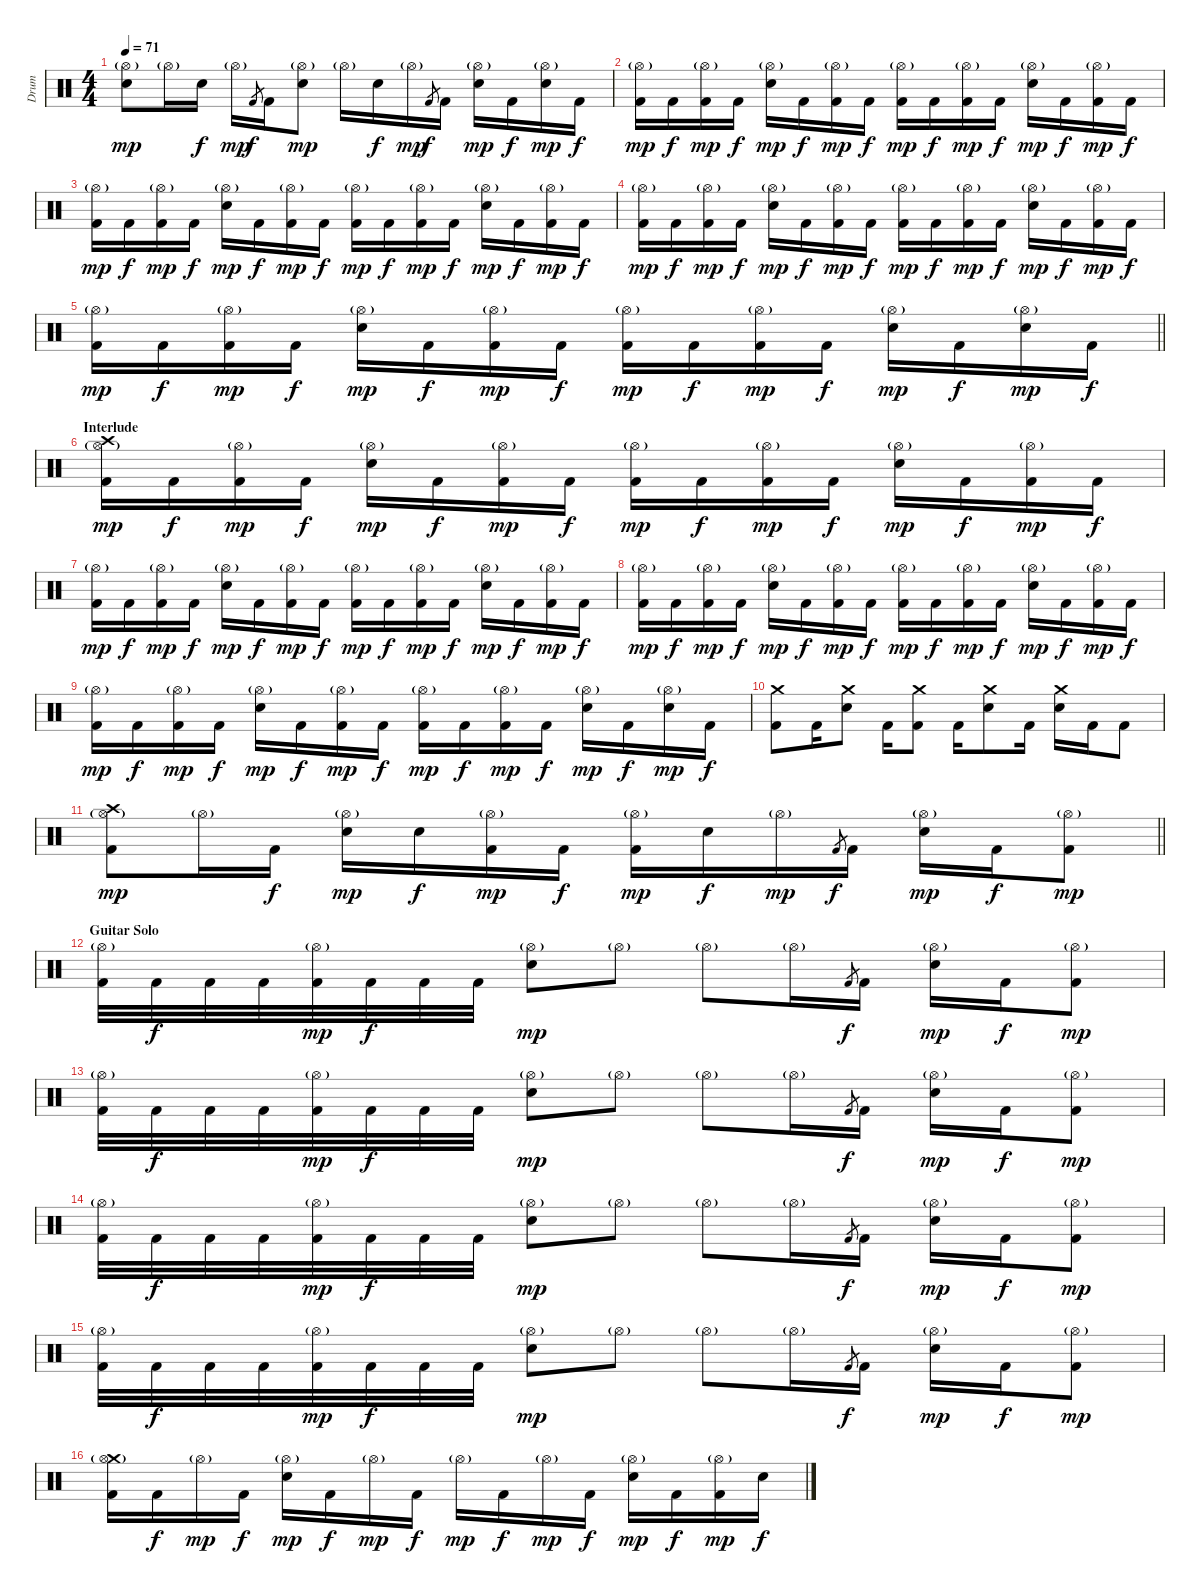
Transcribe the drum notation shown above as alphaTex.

\track ("Drum" "Drum") {instrument percussion}
\staff {score}
\articulation defaults
\ts (4 4)
\tempo 71
\clef neutral
\ks c
("Hi-Hat (open)"{g} "Electric Snare (hit)").8{dy mp} "Hi-Hat (open)"{g}.16 "Electric Snare (hit)".16{dy f} "Hi-Hat (open)"{g}.16{dy mp} "Kick (hit) 2".8{gr dy f} "Kick (hit) 2".16 ("Hi-Hat (open)"{g} "Electric Snare (hit)").8{dy mp} "Hi-Hat (open)"{g}.16 "Electric Snare (hit)".16{dy f} "Hi-Hat (open)"{g}.16{dy mp} "Kick (hit) 2".8{gr dy f} "Kick (hit) 2".16 ("Hi-Hat (open)"{g} "Electric Snare (hit)").16{dy mp} "Kick (hit) 2".16{dy f} ("Hi-Hat (open)"{g} "Electric Snare (hit)").16{dy mp} "Kick (hit) 2".16{dy f} |
("Hi-Hat (open)"{g} "Kick (hit) 2").16{dy mp} "Kick (hit) 2".16{dy f} ("Hi-Hat (open)"{g} "Kick (hit) 2").16{dy mp} "Kick (hit) 2".16{dy f} ("Hi-Hat (open)"{g} "Electric Snare (hit)").16{dy mp} "Kick (hit) 2".16{dy f} ("Hi-Hat (open)"{g} "Kick (hit) 2").16{dy mp} "Kick (hit) 2".16{dy f} ("Hi-Hat (open)"{g} "Kick (hit) 2").16{dy mp} "Kick (hit) 2".16{dy f} ("Hi-Hat (open)"{g} "Kick (hit) 2").16{dy mp} "Kick (hit) 2".16{dy f} ("Hi-Hat (open)"{g} "Electric Snare (hit)").16{dy mp} "Kick (hit) 2".16{dy f} ("Hi-Hat (open)"{g} "Kick (hit) 2").16{dy mp} "Kick (hit) 2".16{dy f} |
("Hi-Hat (open)"{g} "Kick (hit) 2").16{dy mp} "Kick (hit) 2".16{dy f} ("Hi-Hat (open)"{g} "Kick (hit) 2").16{dy mp} "Kick (hit) 2".16{dy f} ("Hi-Hat (open)"{g} "Electric Snare (hit)").16{dy mp} "Kick (hit) 2".16{dy f} ("Hi-Hat (open)"{g} "Kick (hit) 2").16{dy mp} "Kick (hit) 2".16{dy f} ("Hi-Hat (open)"{g} "Kick (hit) 2").16{dy mp} "Kick (hit) 2".16{dy f} ("Hi-Hat (open)"{g} "Kick (hit) 2").16{dy mp} "Kick (hit) 2".16{dy f} ("Hi-Hat (open)"{g} "Electric Snare (hit)").16{dy mp} "Kick (hit) 2".16{dy f} ("Hi-Hat (open)"{g} "Kick (hit) 2").16{dy mp} "Kick (hit) 2".16{dy f} |
("Hi-Hat (open)"{g} "Kick (hit) 2").16{dy mp} "Kick (hit) 2".16{dy f} ("Hi-Hat (open)"{g} "Kick (hit) 2").16{dy mp} "Kick (hit) 2".16{dy f} ("Hi-Hat (open)"{g} "Electric Snare (hit)").16{dy mp} "Kick (hit) 2".16{dy f} ("Hi-Hat (open)"{g} "Kick (hit) 2").16{dy mp} "Kick (hit) 2".16{dy f} ("Hi-Hat (open)"{g} "Kick (hit) 2").16{dy mp} "Kick (hit) 2".16{dy f} ("Hi-Hat (open)"{g} "Kick (hit) 2").16{dy mp} "Kick (hit) 2".16{dy f} ("Hi-Hat (open)"{g} "Electric Snare (hit)").16{dy mp} "Kick (hit) 2".16{dy f} ("Hi-Hat (open)"{g} "Kick (hit) 2").16{dy mp} "Kick (hit) 2".16{dy f} |
\barLineRight lightlight
("Hi-Hat (open)"{g} "Kick (hit) 2").16{dy mp} "Kick (hit) 2".16{dy f} ("Hi-Hat (open)"{g} "Kick (hit) 2").16{dy mp} "Kick (hit) 2".16{dy f} ("Hi-Hat (open)"{g} "Electric Snare (hit)").16{dy mp} "Kick (hit) 2".16{dy f} ("Hi-Hat (open)"{g} "Kick (hit) 2").16{dy mp} "Kick (hit) 2".16{dy f} ("Hi-Hat (open)"{g} "Kick (hit) 2").16{dy mp} "Kick (hit) 2".16{dy f} ("Hi-Hat (open)"{g} "Kick (hit) 2").16{dy mp} "Kick (hit) 2".16{dy f} ("Hi-Hat (open)"{g} "Electric Snare (hit)").16{dy mp} "Kick (hit) 2".16{dy f} ("Hi-Hat (open)"{g} "Electric Snare (hit)").16{dy mp} "Kick (hit) 2".16{dy f} |
\section ("" "Interlude")
("Crash high (hit)" "Hi-Hat (open)"{g} "Kick (hit) 2").16{dy mp} "Kick (hit) 2".16{dy f} ("Hi-Hat (open)"{g} "Kick (hit) 2").16{dy mp} "Kick (hit) 2".16{dy f} ("Hi-Hat (open)"{g} "Electric Snare (hit)").16{dy mp} "Kick (hit) 2".16{dy f} ("Hi-Hat (open)"{g} "Kick (hit) 2").16{dy mp} "Kick (hit) 2".16{dy f} ("Hi-Hat (open)"{g} "Kick (hit) 2").16{dy mp} "Kick (hit) 2".16{dy f} ("Hi-Hat (open)"{g} "Kick (hit) 2").16{dy mp} "Kick (hit) 2".16{dy f} ("Hi-Hat (open)"{g} "Electric Snare (hit)").16{dy mp} "Kick (hit) 2".16{dy f} ("Hi-Hat (open)"{g} "Kick (hit) 2").16{dy mp} "Kick (hit) 2".16{dy f} |
("Hi-Hat (open)"{g} "Kick (hit) 2").16{dy mp} "Kick (hit) 2".16{dy f} ("Hi-Hat (open)"{g} "Kick (hit) 2").16{dy mp} "Kick (hit) 2".16{dy f} ("Hi-Hat (open)"{g} "Electric Snare (hit)").16{dy mp} "Kick (hit) 2".16{dy f} ("Hi-Hat (open)"{g} "Kick (hit) 2").16{dy mp} "Kick (hit) 2".16{dy f} ("Hi-Hat (open)"{g} "Kick (hit) 2").16{dy mp} "Kick (hit) 2".16{dy f} ("Hi-Hat (open)"{g} "Kick (hit) 2").16{dy mp} "Kick (hit) 2".16{dy f} ("Hi-Hat (open)"{g} "Electric Snare (hit)").16{dy mp} "Kick (hit) 2".16{dy f} ("Hi-Hat (open)"{g} "Kick (hit) 2").16{dy mp} "Kick (hit) 2".16{dy f} |
("Hi-Hat (open)"{g} "Kick (hit) 2").16{dy mp} "Kick (hit) 2".16{dy f} ("Hi-Hat (open)"{g} "Kick (hit) 2").16{dy mp} "Kick (hit) 2".16{dy f} ("Hi-Hat (open)"{g} "Electric Snare (hit)").16{dy mp} "Kick (hit) 2".16{dy f} ("Hi-Hat (open)"{g} "Kick (hit) 2").16{dy mp} "Kick (hit) 2".16{dy f} ("Hi-Hat (open)"{g} "Kick (hit) 2").16{dy mp} "Kick (hit) 2".16{dy f} ("Hi-Hat (open)"{g} "Kick (hit) 2").16{dy mp} "Kick (hit) 2".16{dy f} ("Hi-Hat (open)"{g} "Electric Snare (hit)").16{dy mp} "Kick (hit) 2".16{dy f} ("Hi-Hat (open)"{g} "Kick (hit) 2").16{dy mp} "Kick (hit) 2".16{dy f} |
("Hi-Hat (open)"{g} "Kick (hit) 2").16{dy mp} "Kick (hit) 2".16{dy f} ("Hi-Hat (open)"{g} "Kick (hit) 2").16{dy mp} "Kick (hit) 2".16{dy f} ("Hi-Hat (open)"{g} "Electric Snare (hit)").16{dy mp} "Kick (hit) 2".16{dy f} ("Hi-Hat (open)"{g} "Kick (hit) 2").16{dy mp} "Kick (hit) 2".16{dy f} ("Hi-Hat (open)"{g} "Kick (hit) 2").16{dy mp} "Kick (hit) 2".16{dy f} ("Hi-Hat (open)"{g} "Kick (hit) 2").16{dy mp} "Kick (hit) 2".16{dy f} ("Hi-Hat (open)"{g} "Electric Snare (hit)").16{dy mp} "Kick (hit) 2".16{dy f} ("Hi-Hat (open)"{g} "Electric Snare (hit)").16{dy mp} "Kick (hit) 2".16{dy f} |
("Crash medium (hit)" "Kick (hit) 2").8 "Kick (hit) 2".16 ("Crash medium (hit)" "Electric Snare (hit)").8 "Kick (hit) 2".16 ("Crash medium (hit)" "Kick (hit) 2").8 "Kick (hit) 2".16 ("Crash medium (hit)" "Electric Snare (hit)").8 "Kick (hit) 2".16 ("Crash medium (hit)" "Electric Snare (hit)").16 "Kick (hit) 2".16 "Kick (hit) 2".8 |
\barLineRight lightlight
("Crash high (hit)" "Hi-Hat (open)"{g} "Kick (hit) 2").8{dy mp} "Hi-Hat (open)"{g}.16 "Kick (hit) 2".16{dy f} ("Hi-Hat (open)"{g} "Electric Snare (hit)").16{dy mp} "Electric Snare (hit)".16{dy f} ("Hi-Hat (open)"{g} "Kick (hit) 2").16{dy mp} "Kick (hit) 2".16{dy f} ("Hi-Hat (open)"{g} "Kick (hit) 2").16{dy mp} "Electric Snare (hit)".16{dy f} "Hi-Hat (open)"{g}.16{dy mp} "Kick (hit) 2".8{gr dy f} "Kick (hit) 2".16 ("Hi-Hat (open)"{g} "Electric Snare (hit)").16{dy mp} "Kick (hit) 2".16{dy f} ("Hi-Hat (open)"{g} "Kick (hit) 2").8{dy mp} |
\section ("" "Guitar Solo")
("Hi-Hat (open)"{g} "Kick (hit) 2").32 "Kick (hit) 2".32{dy f} "Kick (hit) 2".32 "Kick (hit) 2".32 ("Hi-Hat (open)"{g} "Kick (hit) 2").32{dy mp} "Kick (hit) 2".32{dy f} "Kick (hit) 2".32 "Kick (hit) 2".32 ("Hi-Hat (open)"{g} "Electric Snare (hit)").8{dy mp} "Hi-Hat (open)"{g}.8 "Hi-Hat (open)"{g}.8 "Hi-Hat (open)"{g}.16 "Kick (hit) 2".8{gr dy f} "Kick (hit) 2".16 ("Hi-Hat (open)"{g} "Electric Snare (hit)").16{dy mp} "Kick (hit) 2".16{dy f} ("Hi-Hat (open)"{g} "Kick (hit) 2").8{dy mp} |
("Hi-Hat (open)"{g} "Kick (hit) 2").32 "Kick (hit) 2".32{dy f} "Kick (hit) 2".32 "Kick (hit) 2".32 ("Hi-Hat (open)"{g} "Kick (hit) 2").32{dy mp} "Kick (hit) 2".32{dy f} "Kick (hit) 2".32 "Kick (hit) 2".32 ("Hi-Hat (open)"{g} "Electric Snare (hit)").8{dy mp} "Hi-Hat (open)"{g}.8 "Hi-Hat (open)"{g}.8 "Hi-Hat (open)"{g}.16 "Kick (hit) 2".8{gr dy f} "Kick (hit) 2".16 ("Hi-Hat (open)"{g} "Electric Snare (hit)").16{dy mp} "Kick (hit) 2".16{dy f} ("Hi-Hat (open)"{g} "Kick (hit) 2").8{dy mp} |
("Hi-Hat (open)"{g} "Kick (hit) 2").32 "Kick (hit) 2".32{dy f} "Kick (hit) 2".32 "Kick (hit) 2".32 ("Hi-Hat (open)"{g} "Kick (hit) 2").32{dy mp} "Kick (hit) 2".32{dy f} "Kick (hit) 2".32 "Kick (hit) 2".32 ("Hi-Hat (open)"{g} "Electric Snare (hit)").8{dy mp} "Hi-Hat (open)"{g}.8 "Hi-Hat (open)"{g}.8 "Hi-Hat (open)"{g}.16 "Kick (hit) 2".8{gr dy f} "Kick (hit) 2".16 ("Hi-Hat (open)"{g} "Electric Snare (hit)").16{dy mp} "Kick (hit) 2".16{dy f} ("Hi-Hat (open)"{g} "Kick (hit) 2").8{dy mp} |
("Hi-Hat (open)"{g} "Kick (hit) 2").32 "Kick (hit) 2".32{dy f} "Kick (hit) 2".32 "Kick (hit) 2".32 ("Hi-Hat (open)"{g} "Kick (hit) 2").32{dy mp} "Kick (hit) 2".32{dy f} "Kick (hit) 2".32 "Kick (hit) 2".32 ("Hi-Hat (open)"{g} "Electric Snare (hit)").8{dy mp} "Hi-Hat (open)"{g}.8 "Hi-Hat (open)"{g}.8 "Hi-Hat (open)"{g}.16 "Kick (hit) 2".8{gr dy f} "Kick (hit) 2".16 ("Hi-Hat (open)"{g} "Electric Snare (hit)").16{dy mp} "Kick (hit) 2".16{dy f} ("Hi-Hat (open)"{g} "Kick (hit) 2").8{dy mp} |
("Crash medium (hit)" "Hi-Hat (open)"{g} "Kick (hit) 2").16 "Kick (hit) 2".16{dy f} "Hi-Hat (open)"{g}.16{dy mp} "Kick (hit) 2".16{dy f} ("Hi-Hat (open)"{g} "Electric Snare (hit)").16{dy mp} "Kick (hit) 2".16{dy f} "Hi-Hat (open)"{g}.16{dy mp} "Kick (hit) 2".16{dy f} "Hi-Hat (open)"{g}.16{dy mp} "Kick (hit) 2".16{dy f} "Hi-Hat (open)"{g}.16{dy mp} "Kick (hit) 2".16{dy f} ("Hi-Hat (open)"{g} "Electric Snare (hit)").16{dy mp} "Kick (hit) 2".16{dy f} ("Hi-Hat (open)"{g} "Kick (hit) 2").16{dy mp} "Electric Snare (hit)".16{dy f}
